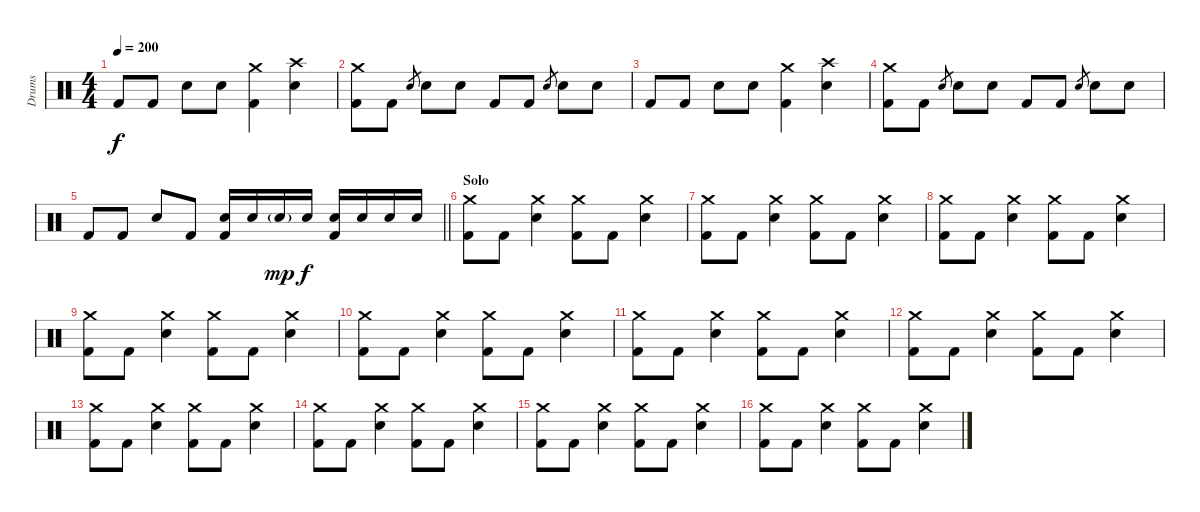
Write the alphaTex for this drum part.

\track ("Drums" "Drums") {instrument percussion}
\staff {score}
\articulation defaults
\ts (4 4)
\tempo 200
\clef neutral
\ks c "Kick (hit) 2".8{dy f} "Kick (hit) 2".8 "Electric Snare (hit)".8 "Electric Snare (hit)".8
("Crash medium (hit)" "Kick (hit) 2").4 ("Crash high (hit)" "Electric Snare (hit)").4 |
("Crash medium (hit)" "Kick (hit) 2").8 "Kick (hit) 2".8 "Electric Snare (hit)".8{gr} "Electric Snare (hit)".8 "Electric Snare (hit)".8 "Kick (hit) 2".8 "Kick (hit) 2".8 "Electric Snare (hit)".8{gr} "Electric Snare (hit)".8 "Electric Snare (hit)".8 |
"Kick (hit) 2".8 "Kick (hit) 2".8 "Electric Snare (hit)".8 "Electric Snare (hit)".8 ("Crash medium (hit)" "Kick (hit) 2").4 ("Crash high (hit)" "Electric Snare (hit)").4 |
("Crash medium (hit)" "Kick (hit) 2").8 "Kick (hit) 2".8 "Electric Snare (hit)".8{gr} "Electric Snare (hit)".8 "Electric Snare (hit)".8 "Kick (hit) 2".8 "Kick (hit) 2".8 "Electric Snare (hit)".8{gr} "Electric Snare (hit)".8 "Electric Snare (hit)".8 |
\barLineRight lightlight "Kick (hit) 2".8 "Kick (hit) 2".8 "Electric Snare (hit)".8 "Kick (hit) 2".8
("Electric Snare (hit)" "Kick (hit) 2").16 "Electric Snare (hit)".16 "Electric Snare (hit)"{g}.16{dy mp} "Electric Snare (hit)".16{dy f} ("Electric Snare (hit)" "Kick (hit) 2").16 "Electric Snare (hit)".16 "Electric Snare (hit)".16 "Electric Snare (hit)".16 |
\section ("" "Solo")
("Crash medium (hit)" "Kick (hit) 2").8 "Kick (hit) 2".8 ("Crash medium (hit)" "Electric Snare (hit)").4 ("Crash medium (hit)" "Kick (hit) 2").8 "Kick (hit) 2".8 ("Crash medium (hit)" "Electric Snare (hit)").4 |
("Crash medium (hit)" "Kick (hit) 2").8 "Kick (hit) 2".8 ("Crash medium (hit)" "Electric Snare (hit)").4 ("Crash medium (hit)" "Kick (hit) 2").8 "Kick (hit) 2".8 ("Crash medium (hit)" "Electric Snare (hit)").4 |
("Crash medium (hit)" "Kick (hit) 2").8 "Kick (hit) 2".8 ("Crash medium (hit)" "Electric Snare (hit)").4 ("Crash medium (hit)" "Kick (hit) 2").8 "Kick (hit) 2".8 ("Crash medium (hit)" "Electric Snare (hit)").4 |
("Crash medium (hit)" "Kick (hit) 2").8 "Kick (hit) 2".8 ("Crash medium (hit)" "Electric Snare (hit)").4 ("Crash medium (hit)" "Kick (hit) 2").8 "Kick (hit) 2".8 ("Crash medium (hit)" "Electric Snare (hit)").4 |
("Crash medium (hit)" "Kick (hit) 2").8 "Kick (hit) 2".8 ("Crash medium (hit)" "Electric Snare (hit)").4 ("Crash medium (hit)" "Kick (hit) 2").8 "Kick (hit) 2".8 ("Crash medium (hit)" "Electric Snare (hit)").4 |
("Crash medium (hit)" "Kick (hit) 2").8 "Kick (hit) 2".8 ("Crash medium (hit)" "Electric Snare (hit)").4 ("Crash medium (hit)" "Kick (hit) 2").8 "Kick (hit) 2".8 ("Crash medium (hit)" "Electric Snare (hit)").4 |
("Crash medium (hit)" "Kick (hit) 2").8 "Kick (hit) 2".8 ("Crash medium (hit)" "Electric Snare (hit)").4 ("Crash medium (hit)" "Kick (hit) 2").8 "Kick (hit) 2".8 ("Crash medium (hit)" "Electric Snare (hit)").4 |
("Crash medium (hit)" "Kick (hit) 2").8 "Kick (hit) 2".8 ("Crash medium (hit)" "Electric Snare (hit)").4 ("Crash medium (hit)" "Kick (hit) 2").8 "Kick (hit) 2".8 ("Crash medium (hit)" "Electric Snare (hit)").4 |
("Crash medium (hit)" "Kick (hit) 2").8 "Kick (hit) 2".8 ("Crash medium (hit)" "Electric Snare (hit)").4 ("Crash medium (hit)" "Kick (hit) 2").8 "Kick (hit) 2".8 ("Crash medium (hit)" "Electric Snare (hit)").4 |
("Crash medium (hit)" "Kick (hit) 2").8 "Kick (hit) 2".8 ("Crash medium (hit)" "Electric Snare (hit)").4 ("Crash medium (hit)" "Kick (hit) 2").8 "Kick (hit) 2".8 ("Crash medium (hit)" "Electric Snare (hit)").4 |
("Crash medium (hit)" "Kick (hit) 2").8 "Kick (hit) 2".8 ("Crash medium (hit)" "Electric Snare (hit)").4 ("Crash medium (hit)" "Kick (hit) 2").8 "Kick (hit) 2".8 ("Crash medium (hit)" "Electric Snare (hit)").4
